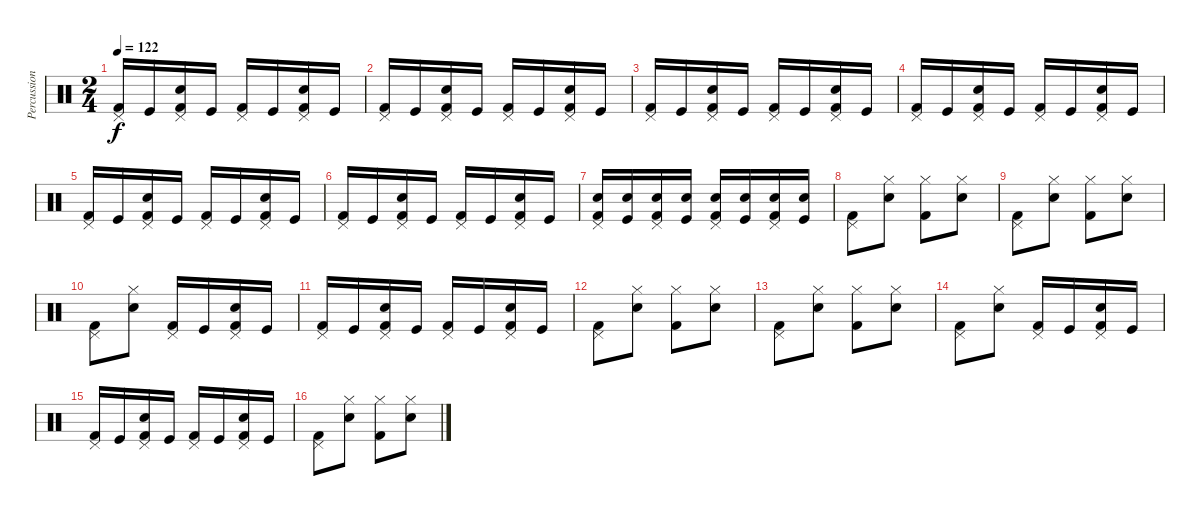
\track ("Percussions" "Percussion") {instrument percussion}
\staff {score}
\articulation defaults
\ts (2 4)
\tempo 122
\clef neutral
\ks c
("Pedal Hi-Hat (hit)" "Kick (hit) 2").16{dy f} "Kick (hit)".16 ("Pedal Hi-Hat (hit)" "Snare (hit) 2" "Kick (hit) 2").16 "Kick (hit)".16 ("Pedal Hi-Hat (hit)" "Kick (hit) 2").16 "Kick (hit)".16 ("Pedal Hi-Hat (hit)" "Snare (hit) 2" "Kick (hit) 2").16 "Kick (hit)".16 |
("Pedal Hi-Hat (hit)" "Kick (hit) 2").16 "Kick (hit)".16 ("Pedal Hi-Hat (hit)" "Snare (hit) 2" "Kick (hit) 2").16 "Kick (hit)".16 ("Pedal Hi-Hat (hit)" "Kick (hit) 2").16 "Kick (hit)".16 ("Pedal Hi-Hat (hit)" "Snare (hit) 2" "Kick (hit) 2").16 "Kick (hit)".16 |
("Pedal Hi-Hat (hit)" "Kick (hit) 2").16 "Kick (hit)".16 ("Pedal Hi-Hat (hit)" "Snare (hit) 2" "Kick (hit) 2").16 "Kick (hit)".16 ("Pedal Hi-Hat (hit)" "Kick (hit) 2").16 "Kick (hit)".16 ("Pedal Hi-Hat (hit)" "Snare (hit) 2" "Kick (hit) 2").16 "Kick (hit)".16 |
("Pedal Hi-Hat (hit)" "Kick (hit) 2").16 "Kick (hit)".16 ("Pedal Hi-Hat (hit)" "Snare (hit) 2" "Kick (hit) 2").16 "Kick (hit)".16 ("Pedal Hi-Hat (hit)" "Kick (hit) 2").16 "Kick (hit)".16 ("Pedal Hi-Hat (hit)" "Snare (hit) 2" "Kick (hit) 2").16 "Kick (hit)".16 |
("Pedal Hi-Hat (hit)" "Kick (hit) 2").16 "Kick (hit)".16 ("Pedal Hi-Hat (hit)" "Snare (hit) 2" "Kick (hit) 2").16 "Kick (hit)".16 ("Pedal Hi-Hat (hit)" "Kick (hit) 2").16 "Kick (hit)".16 ("Pedal Hi-Hat (hit)" "Snare (hit) 2" "Kick (hit) 2").16 "Kick (hit)".16 |
("Pedal Hi-Hat (hit)" "Kick (hit) 2").16 "Kick (hit)".16 ("Pedal Hi-Hat (hit)" "Snare (hit) 2" "Kick (hit) 2").16 "Kick (hit)".16 ("Pedal Hi-Hat (hit)" "Kick (hit) 2").16 "Kick (hit)".16 ("Pedal Hi-Hat (hit)" "Snare (hit) 2" "Kick (hit) 2").16 "Kick (hit)".16 |
("Pedal Hi-Hat (hit)" "Snare (hit) 2" "Kick (hit) 2").16 ("Snare (hit) 2" "Kick (hit)").16 ("Pedal Hi-Hat (hit)" "Snare (hit) 2" "Kick (hit) 2").16 ("Snare (hit) 2" "Kick (hit)").16 ("Pedal Hi-Hat (hit)" "Snare (hit) 2" "Kick (hit) 2").16 ("Snare (hit) 2" "Kick (hit)").16 ("Pedal Hi-Hat (hit)" "Snare (hit) 2" "Kick (hit) 2").16 ("Snare (hit) 2" "Kick (hit)").16 |
("Pedal Hi-Hat (hit)" "Kick (hit) 2").8 ("Hi-Hat (closed)" "Snare (hit) 2").8 ("Hi-Hat (closed)" "Kick (hit) 2").8 ("Hi-Hat (closed)" "Snare (hit) 2").8 |
("Pedal Hi-Hat (hit)" "Kick (hit) 2").8 ("Hi-Hat (closed)" "Snare (hit) 2").8 ("Hi-Hat (closed)" "Kick (hit) 2").8 ("Hi-Hat (closed)" "Snare (hit) 2").8 |
("Pedal Hi-Hat (hit)" "Kick (hit) 2").8 ("Hi-Hat (closed)" "Snare (hit) 2").8 ("Pedal Hi-Hat (hit)" "Kick (hit) 2").16 "Kick (hit)".16 ("Pedal Hi-Hat (hit)" "Snare (hit) 2" "Kick (hit) 2").16 "Kick (hit)".16 |
("Pedal Hi-Hat (hit)" "Kick (hit) 2").16 "Kick (hit)".16 ("Pedal Hi-Hat (hit)" "Snare (hit) 2" "Kick (hit) 2").16 "Kick (hit)".16 ("Pedal Hi-Hat (hit)" "Kick (hit) 2").16 "Kick (hit)".16 ("Pedal Hi-Hat (hit)" "Snare (hit) 2" "Kick (hit) 2").16 "Kick (hit)".16 |
("Pedal Hi-Hat (hit)" "Kick (hit) 2").8 ("Hi-Hat (closed)" "Snare (hit) 2").8 ("Hi-Hat (closed)" "Kick (hit) 2").8 ("Hi-Hat (closed)" "Snare (hit) 2").8 |
("Pedal Hi-Hat (hit)" "Kick (hit) 2").8 ("Hi-Hat (closed)" "Snare (hit) 2").8 ("Hi-Hat (closed)" "Kick (hit) 2").8 ("Hi-Hat (closed)" "Snare (hit) 2").8 |
("Pedal Hi-Hat (hit)" "Kick (hit) 2").8 ("Hi-Hat (closed)" "Snare (hit) 2").8 ("Pedal Hi-Hat (hit)" "Kick (hit) 2").16 "Kick (hit)".16 ("Pedal Hi-Hat (hit)" "Snare (hit) 2" "Kick (hit) 2").16 "Kick (hit)".16 |
("Pedal Hi-Hat (hit)" "Kick (hit) 2").16 "Kick (hit)".16 ("Pedal Hi-Hat (hit)" "Snare (hit) 2" "Kick (hit) 2").16 "Kick (hit)".16 ("Pedal Hi-Hat (hit)" "Kick (hit) 2").16 "Kick (hit)".16 ("Pedal Hi-Hat (hit)" "Snare (hit) 2" "Kick (hit) 2").16 "Kick (hit)".16 |
("Pedal Hi-Hat (hit)" "Kick (hit) 2").8 ("Hi-Hat (closed)" "Snare (hit) 2").8 ("Hi-Hat (closed)" "Kick (hit) 2").8 ("Hi-Hat (closed)" "Snare (hit) 2").8
